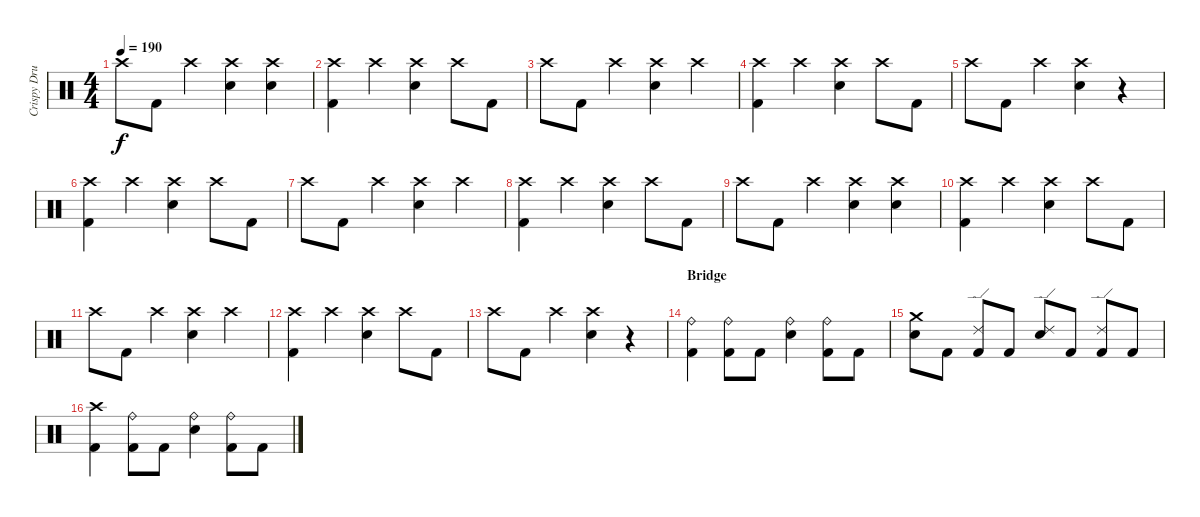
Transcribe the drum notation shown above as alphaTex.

\track ("Crispy Drums" "Crispy Dru") {instrument percussion}
\staff {score}
\articulation defaults
\ts (4 4)
\tempo 190
\clef neutral
\ks c "Crash high (hit)".8{dy f} "Kick (hit) 2".8 "Crash high (hit)".4
("Crash high (hit)" "Electric Snare (hit)").4 ("Crash high (hit)" "Electric Snare (hit)").4 |
("Crash high (hit)" "Kick (hit) 2").4 "Crash high (hit)".4 ("Crash high (hit)" "Electric Snare (hit)").4 "Crash high (hit)".8 "Kick (hit) 2".8 |
"Crash high (hit)".8 "Kick (hit) 2".8 "Crash high (hit)".4 ("Crash high (hit)" "Electric Snare (hit)").4 "Crash high (hit)".4 |
("Crash high (hit)" "Kick (hit) 2").4 "Crash high (hit)".4 ("Crash high (hit)" "Electric Snare (hit)").4 "Crash high (hit)".8 "Kick (hit) 2".8 |
"Crash high (hit)".8 "Kick (hit) 2".8 "Crash high (hit)".4 ("Crash high (hit)" "Electric Snare (hit)").4 r.4 |
("Crash high (hit)" "Kick (hit) 2").4 "Crash high (hit)".4 ("Crash high (hit)" "Electric Snare (hit)").4 "Crash high (hit)".8 "Kick (hit) 2".8 |
"Crash high (hit)".8 "Kick (hit) 2".8 "Crash high (hit)".4 ("Crash high (hit)" "Electric Snare (hit)").4 "Crash high (hit)".4 |
("Crash high (hit)" "Kick (hit) 2").4 "Crash high (hit)".4 ("Crash high (hit)" "Electric Snare (hit)").4 "Crash high (hit)".8 "Kick (hit) 2".8 |
"Crash high (hit)".8 "Kick (hit) 2".8 "Crash high (hit)".4 ("Crash high (hit)" "Electric Snare (hit)").4 ("Crash high (hit)" "Electric Snare (hit)").4 |
("Crash high (hit)" "Kick (hit) 2").4 "Crash high (hit)".4 ("Crash high (hit)" "Electric Snare (hit)").4 "Crash high (hit)".8 "Kick (hit) 2".8 |
"Crash high (hit)".8 "Kick (hit) 2".8 "Crash high (hit)".4 ("Crash high (hit)" "Electric Snare (hit)").4 "Crash high (hit)".4 |
("Crash high (hit)" "Kick (hit) 2").4 "Crash high (hit)".4 ("Crash high (hit)" "Electric Snare (hit)").4 "Crash high (hit)".8 "Kick (hit) 2".8 |
"Crash high (hit)".8 "Kick (hit) 2".8 "Crash high (hit)".4 ("Crash high (hit)" "Electric Snare (hit)").4 r.4 |
\section ("" "Bridge")
("Ride (bell)" "Kick (hit) 2").4 ("Ride (bell)" "Kick (hit) 2").8 "Kick (hit) 2".8 ("Ride (bell)" "Electric Snare (hit)").4 ("Ride (bell)" "Kick (hit) 2").8 "Kick (hit) 2".8 |
("Crash medium (hit)" "Electric Snare (hit)").8 "Kick (hit) 2".8 ("Ride (edge) 2" "Kick (hit) 2").8 "Kick (hit) 2".8 ("Ride (edge) 2" "Electric Snare (hit)").8 "Kick (hit) 2".8 ("Ride (edge) 2" "Kick (hit) 2").8 "Kick (hit) 2".8 |
("Crash high (hit)" "Kick (hit) 2").4 ("Ride (bell)" "Kick (hit) 2").8 "Kick (hit) 2".8 ("Ride (bell)" "Electric Snare (hit)").4 ("Ride (bell)" "Kick (hit) 2").8 "Kick (hit) 2".8
